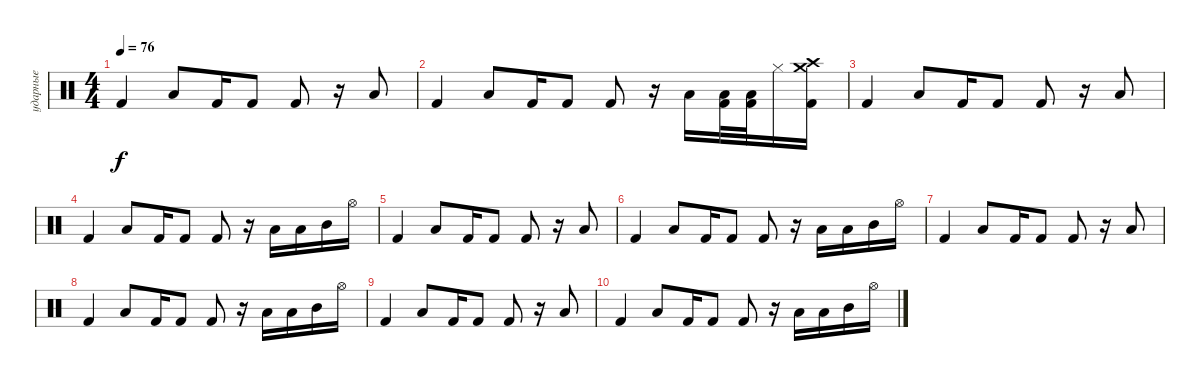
\track ("ударные" "ударные") {instrument percussion}
\staff {score}
\articulation defaults
\ts (4 4)
\tempo 76
\clef neutral
\ks c "Kick (hit) 2".4{dy f} "Low Tom (hit)".8 "Kick (hit) 2".16 "Kick (hit) 2".8 "Kick (hit) 2".8
r.16 "Low Tom (hit)".8 |
"Kick (hit) 2".4 "Low Tom (hit)".8 "Kick (hit) 2".16 "Kick (hit) 2".8 "Kick (hit) 2".8 r.16 "Low Tom (hit)".16 ("Low Floor Tom (hit)" "Kick (hit) 2").32 ("Low Floor Tom (hit)" "Kick (hit) 2").32 "Hi-Hat (closed)".16 ("Crash medium (hit)" "Crash high (hit)" "Kick (hit) 2").16 |
"Kick (hit) 2".4 "Low Tom (hit)".8 "Kick (hit) 2".16 "Kick (hit) 2".8 "Kick (hit) 2".8 r.16 "Low Tom (hit)".8 |
"Kick (hit) 2".4 "Low Tom (hit)".8 "Kick (hit) 2".16 "Kick (hit) 2".8 "Kick (hit) 2".8 r.16 "Low Tom (hit)".16 "Low Tom (hit)".16 "Mid Tom (hit)".16 "Hi-Hat (open)".16 |
"Kick (hit) 2".4 "Low Tom (hit)".8 "Kick (hit) 2".16 "Kick (hit) 2".8 "Kick (hit) 2".8 r.16 "Low Tom (hit)".8 |
"Kick (hit) 2".4 "Low Tom (hit)".8 "Kick (hit) 2".16 "Kick (hit) 2".8 "Kick (hit) 2".8 r.16 "Low Tom (hit)".16 "Low Tom (hit)".16 "Mid Tom (hit)".16 "Hi-Hat (open)".16 |
"Kick (hit) 2".4 "Low Tom (hit)".8 "Kick (hit) 2".16 "Kick (hit) 2".8 "Kick (hit) 2".8 r.16 "Low Tom (hit)".8 |
"Kick (hit) 2".4 "Low Tom (hit)".8 "Kick (hit) 2".16 "Kick (hit) 2".8 "Kick (hit) 2".8 r.16 "Low Tom (hit)".16 "Low Tom (hit)".16 "Mid Tom (hit)".16 "Hi-Hat (open)".16 |
"Kick (hit) 2".4 "Low Tom (hit)".8 "Kick (hit) 2".16 "Kick (hit) 2".8 "Kick (hit) 2".8 r.16 "Low Tom (hit)".8 |
"Kick (hit) 2".4 "Low Tom (hit)".8 "Kick (hit) 2".16 "Kick (hit) 2".8 "Kick (hit) 2".8 r.16 "Low Tom (hit)".16 "Low Tom (hit)".16 "Mid Tom (hit)".16 "Hi-Hat (open)".16
